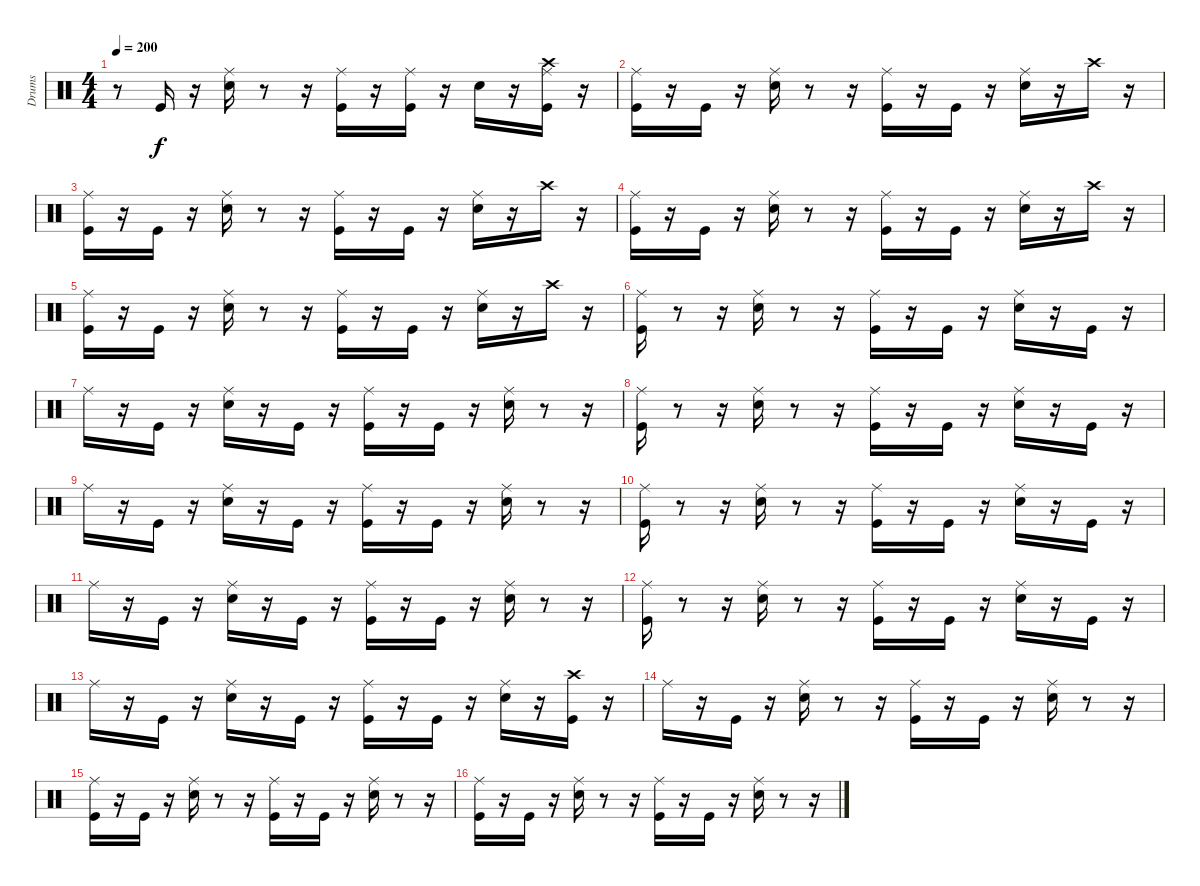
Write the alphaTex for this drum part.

\track ("Drums" "Drums") {instrument percussion}
\staff {score}
\articulation defaults
\ts (4 4)
\tempo 200
\clef neutral
\ks c
r.8{dy f} "Kick (hit)".16 r.16 ("Snare (hit) 2" "Ride (middle)").16 r.8 r.16 ("Kick (hit)" "Ride (middle)").16 r.16 ("Ride (middle)" "Kick (hit)").16 r.16 "Snare (hit) 2".16 r.16 ("Kick (hit)" "Crash high (hit)" "Ride (middle)").16 r.16 |
("Ride (middle)" "Kick (hit)").16 r.16 "Kick (hit)".16 r.16 ("Ride (middle)" "Snare (hit) 2").16 r.8 r.16 ("Kick (hit)" "Ride (middle)").16 r.16 "Kick (hit)".16 r.16 ("Ride (middle)" "Snare (hit) 2").16 r.16 "Crash high (hit)".16 r.16 |
("Ride (middle)" "Kick (hit)").16 r.16 "Kick (hit)".16 r.16 ("Ride (middle)" "Snare (hit) 2").16 r.8 r.16 ("Ride (middle)" "Kick (hit)").16 r.16 "Kick (hit)".16 r.16 ("Ride (middle)" "Snare (hit) 2").16 r.16 "Crash high (hit)".16 r.16 |
("Ride (middle)" "Kick (hit)").16 r.16 "Kick (hit)".16 r.16 ("Ride (middle)" "Snare (hit) 2").16 r.8 r.16 ("Ride (middle)" "Kick (hit)").16 r.16 "Kick (hit)".16 r.16 ("Ride (middle)" "Snare (hit) 2").16 r.16 "Crash high (hit)".16 r.16 |
("Ride (middle)" "Kick (hit)").16 r.16 "Kick (hit)".16 r.16 ("Ride (middle)" "Snare (hit) 2").16 r.8 r.16 ("Ride (middle)" "Kick (hit)").16 r.16 "Kick (hit)".16 r.16 ("Ride (middle)" "Snare (hit) 2").16 r.16 "Crash high (hit)".16 r.16 |
("Ride (middle)" "Kick (hit)").16 r.8 r.16 ("Ride (middle)" "Snare (hit) 2").16 r.8 r.16 ("Ride (middle)" "Kick (hit)").16 r.16 "Kick (hit)".16 r.16 ("Ride (middle)" "Snare (hit) 2").16 r.16 "Kick (hit)".16 r.16 |
"Ride (middle)".16 r.16 "Kick (hit)".16 r.16 ("Ride (middle)" "Snare (hit) 2").16 r.16 "Kick (hit)".16 r.16 ("Ride (middle)" "Kick (hit)").16 r.16 "Kick (hit)".16 r.16 ("Ride (middle)" "Snare (hit) 2").16 r.8 r.16 |
("Ride (middle)" "Kick (hit)").16 r.8 r.16 ("Ride (middle)" "Snare (hit) 2").16 r.8 r.16 ("Ride (middle)" "Kick (hit)").16 r.16 "Kick (hit)".16 r.16 ("Ride (middle)" "Snare (hit) 2").16 r.16 "Kick (hit)".16 r.16 |
"Ride (middle)".16 r.16 "Kick (hit)".16 r.16 ("Ride (middle)" "Snare (hit) 2").16 r.16 "Kick (hit)".16 r.16 ("Ride (middle)" "Kick (hit)").16 r.16 "Kick (hit)".16 r.16 ("Ride (middle)" "Snare (hit) 2").16 r.8 r.16 |
("Ride (middle)" "Kick (hit)").16 r.8 r.16 ("Ride (middle)" "Snare (hit) 2").16 r.8 r.16 ("Ride (middle)" "Kick (hit)").16 r.16 "Kick (hit)".16 r.16 ("Ride (middle)" "Snare (hit) 2").16 r.16 "Kick (hit)".16 r.16 |
"Ride (middle)".16 r.16 "Kick (hit)".16 r.16 ("Ride (middle)" "Snare (hit) 2").16 r.16 "Kick (hit)".16 r.16 ("Ride (middle)" "Kick (hit)").16 r.16 "Kick (hit)".16 r.16 ("Ride (middle)" "Snare (hit) 2").16 r.8 r.16 |
("Ride (middle)" "Kick (hit)").16 r.8 r.16 ("Ride (middle)" "Snare (hit) 2").16 r.8 r.16 ("Ride (middle)" "Kick (hit)").16 r.16 "Kick (hit)".16 r.16 ("Ride (middle)" "Snare (hit) 2").16 r.16 "Kick (hit)".16 r.16 |
"Ride (middle)".16 r.16 "Kick (hit)".16 r.16 ("Ride (middle)" "Snare (hit) 2").16 r.16 "Kick (hit)".16 r.16 ("Ride (middle)" "Kick (hit)").16 r.16 "Kick (hit)".16 r.16 ("Ride (middle)" "Snare (hit) 2").16 r.16 ("Kick (hit)" "Crash high (hit)").16 r.16 |
"Ride (middle)".16 r.16 "Kick (hit)".16 r.16 ("Ride (middle)" "Snare (hit) 2").16 r.8 r.16 ("Ride (middle)" "Kick (hit)").16 r.16 "Kick (hit)".16 r.16 ("Ride (middle)" "Snare (hit) 2").16 r.8 r.16 |
("Ride (middle)" "Kick (hit)").16 r.16 "Kick (hit)".16 r.16 ("Ride (middle)" "Snare (hit) 2").16 r.8 r.16 ("Ride (middle)" "Kick (hit)").16 r.16 "Kick (hit)".16 r.16 ("Ride (middle)" "Snare (hit) 2").16 r.8 r.16 |
("Ride (middle)" "Kick (hit)").16 r.16 "Kick (hit)".16 r.16 ("Snare (hit) 2" "Ride (middle)").16 r.8 r.16 ("Ride (middle)" "Kick (hit)").16 r.16 "Kick (hit)".16 r.16 ("Ride (middle)" "Snare (hit) 2").16 r.8 r.16
